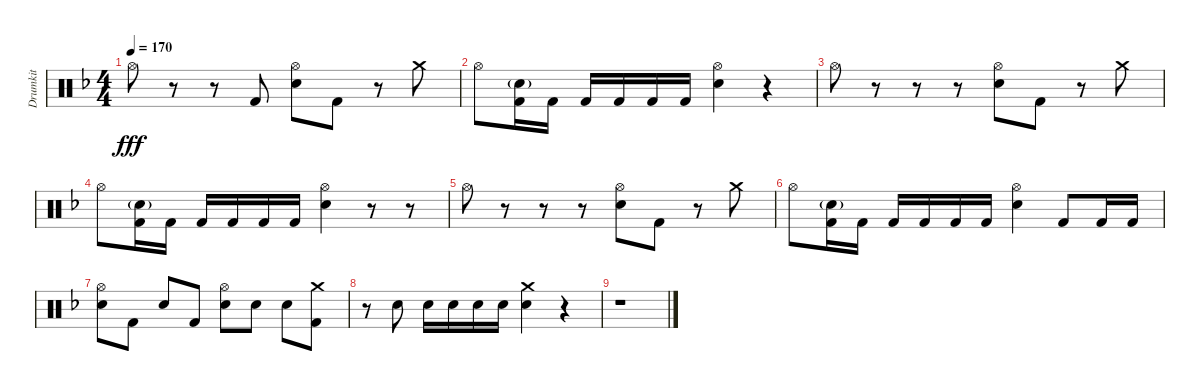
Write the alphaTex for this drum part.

\track ("Drumkit" "Drumkit") {instrument percussion}
\staff {score}
\articulation defaults
\ts (4 4)
\tempo 170
\clef neutral
\ks f "Hi-Hat (open)".8{dy fff}
r.8 r.8 "Kick (hit) 2".8 ("Hi-Hat (open)" "Snare (hit) 2").8 "Kick (hit) 2".8 r.8 "Crash medium (hit)".8 |
"Hi-Hat (open)".8 ("Snare (hit) 2"{g} "Kick (hit) 2").16 "Kick (hit) 2".16 "Kick (hit) 2".16 "Kick (hit) 2".16 "Kick (hit) 2".16 "Kick (hit) 2".16 ("Hi-Hat (open)" "Snare (hit) 2").4 r.4 |
"Hi-Hat (open)".8 r.8 r.8 r.8 ("Hi-Hat (open)" "Snare (hit) 2").8 "Kick (hit) 2".8 r.8 "Crash medium (hit)".8 |
"Hi-Hat (open)".8 ("Snare (hit) 2"{g} "Kick (hit) 2").16 "Kick (hit) 2".16 "Kick (hit) 2".16 "Kick (hit) 2".16 "Kick (hit) 2".16 "Kick (hit) 2".16 ("Hi-Hat (open)" "Snare (hit) 2").4 r.8 r.8 |
"Hi-Hat (open)".8 r.8 r.8 r.8 ("Hi-Hat (open)" "Snare (hit) 2").8 "Kick (hit) 2".8 r.8 "Crash medium (hit)".8 |
"Hi-Hat (open)".8 ("Snare (hit) 2"{g} "Kick (hit) 2").16 "Kick (hit) 2".16 "Kick (hit) 2".16 "Kick (hit) 2".16 "Kick (hit) 2".16 "Kick (hit) 2".16 ("Hi-Hat (open)" "Snare (hit) 2").4 "Kick (hit) 2".8 "Kick (hit) 2".16 "Kick (hit) 2".16 |
("Hi-Hat (open)" "Snare (hit) 2").8 "Kick (hit) 2".8 "Snare (hit) 2".8 "Kick (hit) 2".8 ("Hi-Hat (open)" "Snare (hit) 2").8 "Snare (hit) 2".8 "Snare (hit) 2".8 ("Crash medium (hit)" "Kick (hit) 2").8 |
r.8 "Snare (hit) 2".8 "Snare (hit) 2".16 "Snare (hit) 2".16 "Snare (hit) 2".16 "Snare (hit) 2".16 ("Crash medium (hit)" "Snare (hit) 2").4 r.4 |
r.1
